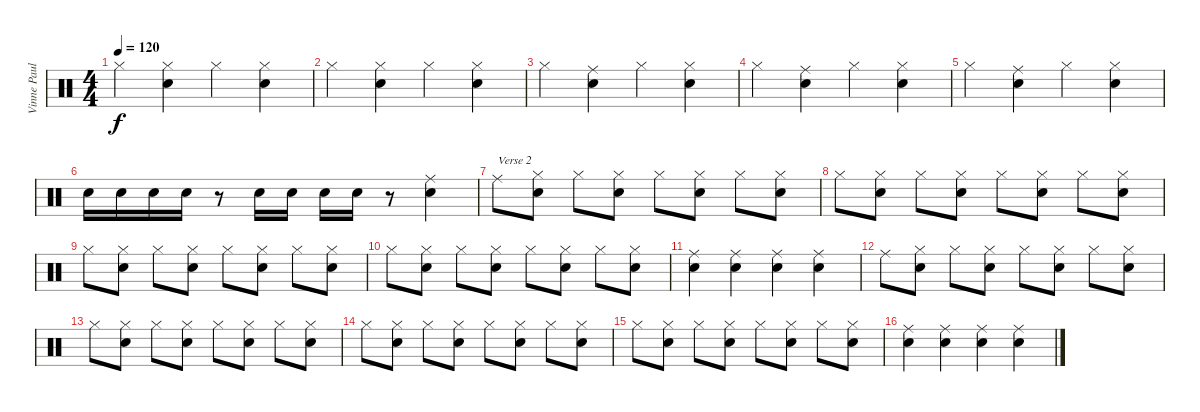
\track ("Vinne Paul cymbals and tom" "Vinne Paul") {instrument percussion}
\staff {score}
\articulation defaults
\ts (4 4)
\tempo 120
\clef neutral
\ks c "Hi-Hat (closed)".4{dy f}
("Hi-Hat (closed)" "Electric Snare (hit)").4 "Hi-Hat (closed)".4 ("Hi-Hat (closed)" "Electric Snare (hit)").4 |
"Hi-Hat (closed)".4 ("Hi-Hat (closed)" "Electric Snare (hit)").4 "Hi-Hat (closed)".4 ("Hi-Hat (closed)" "Electric Snare (hit)").4 |
"Hi-Hat (closed)".4 ("Ride (middle)" "Electric Snare (hit)").4 "Hi-Hat (closed)".4 ("Hi-Hat (closed)" "Electric Snare (hit)").4 |
"Hi-Hat (closed)".4 ("Ride (middle)" "Electric Snare (hit)").4 "Hi-Hat (closed)".4 ("Hi-Hat (closed)" "Electric Snare (hit)").4 |
"Hi-Hat (closed)".4 ("Ride (middle)" "Electric Snare (hit)").4 "Hi-Hat (closed)".4 ("Hi-Hat (closed)" "Electric Snare (hit)").4 |
"Electric Snare (hit)".16 "Electric Snare (hit)".16 "Electric Snare (hit)".16 "Electric Snare (hit)".16 r.8 "Electric Snare (hit)".16 "Electric Snare (hit)".16 "Electric Snare (hit)".16 "Electric Snare (hit)".16 r.8 ("Ride (middle)" "Electric Snare (hit)").4 |
"Ride (middle)".8{txt "Verse 2"} ("Hi-Hat (closed)" "Electric Snare (hit)").8 "Hi-Hat (closed)".8 ("Hi-Hat (closed)" "Electric Snare (hit)").8 "Hi-Hat (closed)".8 ("Hi-Hat (closed)" "Electric Snare (hit)").8 "Hi-Hat (closed)".8 ("Hi-Hat (closed)" "Electric Snare (hit)").8 |
"Hi-Hat (closed)".8 ("Hi-Hat (closed)" "Electric Snare (hit)").8 "Hi-Hat (closed)".8 ("Hi-Hat (closed)" "Electric Snare (hit)").8 "Hi-Hat (closed)".8 ("Hi-Hat (closed)" "Electric Snare (hit)").8 "Hi-Hat (closed)".8 ("Hi-Hat (closed)" "Electric Snare (hit)").8 |
"Hi-Hat (closed)".8 ("Hi-Hat (closed)" "Electric Snare (hit)").8 "Hi-Hat (closed)".8 ("Hi-Hat (closed)" "Electric Snare (hit)").8 "Hi-Hat (closed)".8 ("Hi-Hat (closed)" "Electric Snare (hit)").8 "Hi-Hat (closed)".8 ("Hi-Hat (closed)" "Electric Snare (hit)").8 |
"Hi-Hat (closed)".8 ("Hi-Hat (closed)" "Electric Snare (hit)").8 "Hi-Hat (closed)".8 ("Hi-Hat (closed)" "Electric Snare (hit)").8 "Hi-Hat (closed)".8 ("Hi-Hat (closed)" "Electric Snare (hit)").8 "Hi-Hat (closed)".8 ("Hi-Hat (closed)" "Electric Snare (hit)").8 |
("Ride (middle)" "Electric Snare (hit)").4 ("Ride (middle)" "Electric Snare (hit)").4 ("Ride (middle)" "Electric Snare (hit)").4 ("Ride (middle)" "Electric Snare (hit)").4 |
"Ride (middle)".8 ("Hi-Hat (closed)" "Electric Snare (hit)").8 "Hi-Hat (closed)".8 ("Hi-Hat (closed)" "Electric Snare (hit)").8 "Hi-Hat (closed)".8 ("Hi-Hat (closed)" "Electric Snare (hit)").8 "Hi-Hat (closed)".8 ("Hi-Hat (closed)" "Electric Snare (hit)").8 |
"Hi-Hat (closed)".8 ("Hi-Hat (closed)" "Electric Snare (hit)").8 "Hi-Hat (closed)".8 ("Hi-Hat (closed)" "Electric Snare (hit)").8 "Hi-Hat (closed)".8 ("Hi-Hat (closed)" "Electric Snare (hit)").8 "Hi-Hat (closed)".8 ("Hi-Hat (closed)" "Electric Snare (hit)").8 |
"Hi-Hat (closed)".8 ("Hi-Hat (closed)" "Electric Snare (hit)").8 "Hi-Hat (closed)".8 ("Hi-Hat (closed)" "Electric Snare (hit)").8 "Hi-Hat (closed)".8 ("Hi-Hat (closed)" "Electric Snare (hit)").8 "Hi-Hat (closed)".8 ("Hi-Hat (closed)" "Electric Snare (hit)").8 |
"Hi-Hat (closed)".8 ("Hi-Hat (closed)" "Electric Snare (hit)").8 "Hi-Hat (closed)".8 ("Hi-Hat (closed)" "Electric Snare (hit)").8 "Hi-Hat (closed)".8 ("Hi-Hat (closed)" "Electric Snare (hit)").8 "Hi-Hat (closed)".8 ("Hi-Hat (closed)" "Electric Snare (hit)").8 |
("Ride (middle)" "Electric Snare (hit)").4 ("Ride (middle)" "Electric Snare (hit)").4 ("Ride (middle)" "Electric Snare (hit)").4 ("Ride (middle)" "Electric Snare (hit)").4
